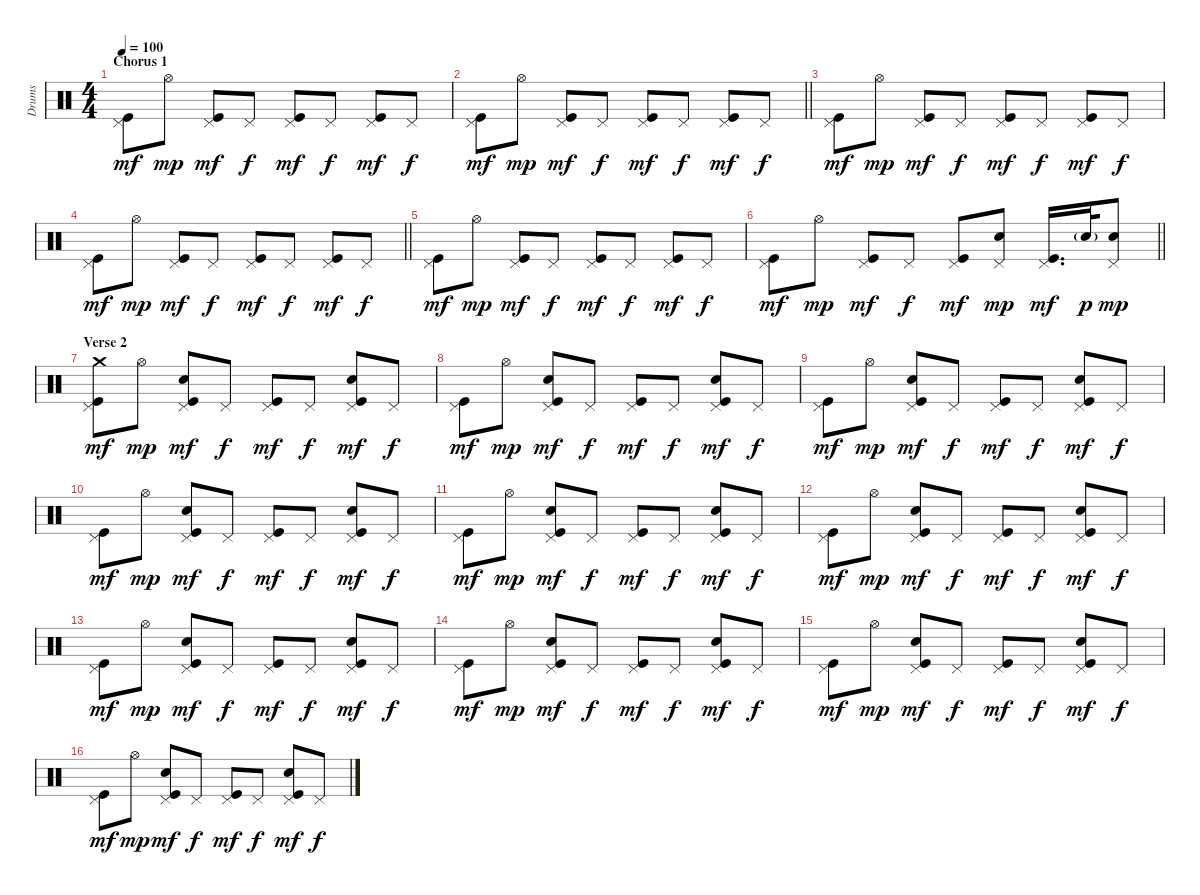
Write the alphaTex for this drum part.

\track ("Drums" "Drums") {instrument percussion}
\staff {score}
\articulation defaults
\ts (4 4)
\section ("" "Chorus 1")
\tempo 100
\clef neutral
\ks c
("Pedal Hi-Hat (hit)" "Kick (hit)").8{dy mf} "Hi-Hat (open)".8{dy mp} ("Pedal Hi-Hat (hit)" "Kick (hit)").8{dy mf} "Pedal Hi-Hat (hit)".8{dy f} ("Pedal Hi-Hat (hit)" "Kick (hit)").8{dy mf} "Pedal Hi-Hat (hit)".8{dy f} ("Pedal Hi-Hat (hit)" "Kick (hit)").8{dy mf} "Pedal Hi-Hat (hit)".8{dy f} |
\barLineRight lightlight
("Pedal Hi-Hat (hit)" "Kick (hit)").8{dy mf} "Hi-Hat (open)".8{dy mp} ("Pedal Hi-Hat (hit)" "Kick (hit)").8{dy mf} "Pedal Hi-Hat (hit)".8{dy f} ("Pedal Hi-Hat (hit)" "Kick (hit)").8{dy mf} "Pedal Hi-Hat (hit)".8{dy f} ("Pedal Hi-Hat (hit)" "Kick (hit)").8{dy mf} "Pedal Hi-Hat (hit)".8{dy f} |
("Pedal Hi-Hat (hit)" "Kick (hit)").8{dy mf} "Hi-Hat (open)".8{dy mp} ("Pedal Hi-Hat (hit)" "Kick (hit)").8{dy mf} "Pedal Hi-Hat (hit)".8{dy f} ("Pedal Hi-Hat (hit)" "Kick (hit)").8{dy mf} "Pedal Hi-Hat (hit)".8{dy f} ("Pedal Hi-Hat (hit)" "Kick (hit)").8{dy mf} "Pedal Hi-Hat (hit)".8{dy f} |
\barLineRight lightlight
("Pedal Hi-Hat (hit)" "Kick (hit)").8{dy mf} "Hi-Hat (open)".8{dy mp} ("Pedal Hi-Hat (hit)" "Kick (hit)").8{dy mf} "Pedal Hi-Hat (hit)".8{dy f} ("Pedal Hi-Hat (hit)" "Kick (hit)").8{dy mf} "Pedal Hi-Hat (hit)".8{dy f} ("Pedal Hi-Hat (hit)" "Kick (hit)").8{dy mf} "Pedal Hi-Hat (hit)".8{dy f} |
("Pedal Hi-Hat (hit)" "Kick (hit)").8{dy mf} "Hi-Hat (open)".8{dy mp} ("Pedal Hi-Hat (hit)" "Kick (hit)").8{dy mf} "Pedal Hi-Hat (hit)".8{dy f} ("Pedal Hi-Hat (hit)" "Kick (hit)").8{dy mf} "Pedal Hi-Hat (hit)".8{dy f} ("Pedal Hi-Hat (hit)" "Kick (hit)").8{dy mf} "Pedal Hi-Hat (hit)".8{dy f} |
\barLineRight lightlight
("Pedal Hi-Hat (hit)" "Kick (hit)").8{dy mf} "Hi-Hat (open)".8{dy mp} ("Pedal Hi-Hat (hit)" "Kick (hit)").8{dy mf} "Pedal Hi-Hat (hit)".8{dy f} ("Pedal Hi-Hat (hit)" "Kick (hit)").8{dy mf} ("Pedal Hi-Hat (hit)" "Electric Snare (hit)").8{dy mp} ("Pedal Hi-Hat (hit)" "Kick (hit)").16{d dy mf} "Electric Snare (hit)"{g}.32{dy p} ("Pedal Hi-Hat (hit)" "Electric Snare (hit)").8{dy mp} |
\section ("" "Verse 2")
("Pedal Hi-Hat (hit)" "Crash medium (hit)" "Kick (hit)").8{dy mf} "Hi-Hat (open)".8{dy mp} ("Pedal Hi-Hat (hit)" "Electric Snare (hit)" "Kick (hit)").8{dy mf} "Pedal Hi-Hat (hit)".8{dy f} ("Pedal Hi-Hat (hit)" "Kick (hit)").8{dy mf} "Pedal Hi-Hat (hit)".8{dy f} ("Pedal Hi-Hat (hit)" "Electric Snare (hit)" "Kick (hit)").8{dy mf} "Pedal Hi-Hat (hit)".8{dy f} |
("Pedal Hi-Hat (hit)" "Kick (hit)").8{dy mf} "Hi-Hat (open)".8{dy mp} ("Pedal Hi-Hat (hit)" "Electric Snare (hit)" "Kick (hit)").8{dy mf} "Pedal Hi-Hat (hit)".8{dy f} ("Pedal Hi-Hat (hit)" "Kick (hit)").8{dy mf} "Pedal Hi-Hat (hit)".8{dy f} ("Pedal Hi-Hat (hit)" "Electric Snare (hit)" "Kick (hit)").8{dy mf} "Pedal Hi-Hat (hit)".8{dy f} |
("Pedal Hi-Hat (hit)" "Kick (hit)").8{dy mf} "Hi-Hat (open)".8{dy mp} ("Pedal Hi-Hat (hit)" "Electric Snare (hit)" "Kick (hit)").8{dy mf} "Pedal Hi-Hat (hit)".8{dy f} ("Pedal Hi-Hat (hit)" "Kick (hit)").8{dy mf} "Pedal Hi-Hat (hit)".8{dy f} ("Pedal Hi-Hat (hit)" "Electric Snare (hit)" "Kick (hit)").8{dy mf} "Pedal Hi-Hat (hit)".8{dy f} |
("Pedal Hi-Hat (hit)" "Kick (hit)").8{dy mf} "Hi-Hat (open)".8{dy mp} ("Pedal Hi-Hat (hit)" "Electric Snare (hit)" "Kick (hit)").8{dy mf} "Pedal Hi-Hat (hit)".8{dy f} ("Pedal Hi-Hat (hit)" "Kick (hit)").8{dy mf} "Pedal Hi-Hat (hit)".8{dy f} ("Pedal Hi-Hat (hit)" "Electric Snare (hit)" "Kick (hit)").8{dy mf} "Pedal Hi-Hat (hit)".8{dy f} |
("Pedal Hi-Hat (hit)" "Kick (hit)").8{dy mf} "Hi-Hat (open)".8{dy mp} ("Pedal Hi-Hat (hit)" "Electric Snare (hit)" "Kick (hit)").8{dy mf} "Pedal Hi-Hat (hit)".8{dy f} ("Pedal Hi-Hat (hit)" "Kick (hit)").8{dy mf} "Pedal Hi-Hat (hit)".8{dy f} ("Pedal Hi-Hat (hit)" "Electric Snare (hit)" "Kick (hit)").8{dy mf} "Pedal Hi-Hat (hit)".8{dy f} |
("Pedal Hi-Hat (hit)" "Kick (hit)").8{dy mf} "Hi-Hat (open)".8{dy mp} ("Pedal Hi-Hat (hit)" "Electric Snare (hit)" "Kick (hit)").8{dy mf} "Pedal Hi-Hat (hit)".8{dy f} ("Pedal Hi-Hat (hit)" "Kick (hit)").8{dy mf} "Pedal Hi-Hat (hit)".8{dy f} ("Pedal Hi-Hat (hit)" "Electric Snare (hit)" "Kick (hit)").8{dy mf} "Pedal Hi-Hat (hit)".8{dy f} |
("Pedal Hi-Hat (hit)" "Kick (hit)").8{dy mf} "Hi-Hat (open)".8{dy mp} ("Pedal Hi-Hat (hit)" "Electric Snare (hit)" "Kick (hit)").8{dy mf} "Pedal Hi-Hat (hit)".8{dy f} ("Pedal Hi-Hat (hit)" "Kick (hit)").8{dy mf} "Pedal Hi-Hat (hit)".8{dy f} ("Pedal Hi-Hat (hit)" "Electric Snare (hit)" "Kick (hit)").8{dy mf} "Pedal Hi-Hat (hit)".8{dy f} |
("Pedal Hi-Hat (hit)" "Kick (hit)").8{dy mf} "Hi-Hat (open)".8{dy mp} ("Pedal Hi-Hat (hit)" "Electric Snare (hit)" "Kick (hit)").8{dy mf} "Pedal Hi-Hat (hit)".8{dy f} ("Pedal Hi-Hat (hit)" "Kick (hit)").8{dy mf} "Pedal Hi-Hat (hit)".8{dy f} ("Pedal Hi-Hat (hit)" "Electric Snare (hit)" "Kick (hit)").8{dy mf} "Pedal Hi-Hat (hit)".8{dy f} |
("Pedal Hi-Hat (hit)" "Kick (hit)").8{dy mf} "Hi-Hat (open)".8{dy mp} ("Pedal Hi-Hat (hit)" "Electric Snare (hit)" "Kick (hit)").8{dy mf} "Pedal Hi-Hat (hit)".8{dy f} ("Pedal Hi-Hat (hit)" "Kick (hit)").8{dy mf} "Pedal Hi-Hat (hit)".8{dy f} ("Pedal Hi-Hat (hit)" "Electric Snare (hit)" "Kick (hit)").8{dy mf} "Pedal Hi-Hat (hit)".8{dy f} |
("Pedal Hi-Hat (hit)" "Kick (hit)").8{dy mf} "Hi-Hat (open)".8{dy mp} ("Pedal Hi-Hat (hit)" "Electric Snare (hit)" "Kick (hit)").8{dy mf} "Pedal Hi-Hat (hit)".8{dy f} ("Pedal Hi-Hat (hit)" "Kick (hit)").8{dy mf} "Pedal Hi-Hat (hit)".8{dy f} ("Pedal Hi-Hat (hit)" "Electric Snare (hit)" "Kick (hit)").8{dy mf} "Pedal Hi-Hat (hit)".8{dy f}
